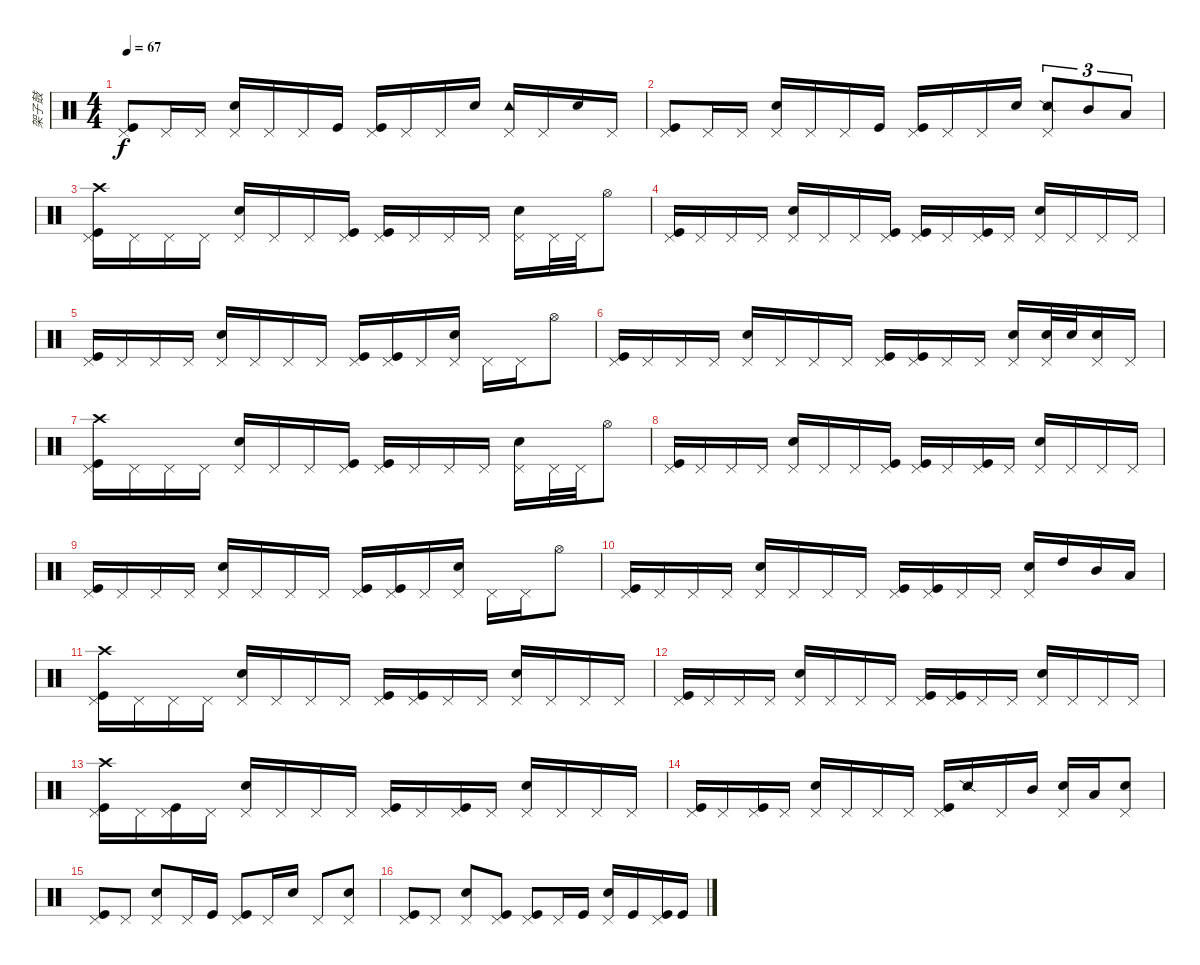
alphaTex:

\track ("架子鼓" "架子鼓") {instrument percussion}
\staff {score}
\articulation defaults
\ts (4 4)
\tempo 67
\clef neutral
\ks c
("Kick (hit)" "Pedal Hi-Hat (hit)").8{dy f} "Pedal Hi-Hat (hit)".16 "Pedal Hi-Hat (hit)".16 ("Snare (hit) 2" "Pedal Hi-Hat (hit)").16 "Pedal Hi-Hat (hit)".16 "Pedal Hi-Hat (hit)".16 "Kick (hit)".16 ("Kick (hit)" "Pedal Hi-Hat (hit)").16 "Pedal Hi-Hat (hit)".16 "Pedal Hi-Hat (hit)".16 "Snare (hit) 2".16 ("Tambourine (hit)" "Pedal Hi-Hat (hit)").16 "Pedal Hi-Hat (hit)".16 "Snare (hit) 2".16 "Pedal Hi-Hat (hit)".16 |
("Kick (hit)" "Pedal Hi-Hat (hit)").8 "Pedal Hi-Hat (hit)".16 "Pedal Hi-Hat (hit)".16 ("Snare (hit) 2" "Pedal Hi-Hat (hit)").16 "Pedal Hi-Hat (hit)".16 "Pedal Hi-Hat (hit)".16 "Kick (hit)".16 ("Kick (hit)" "Pedal Hi-Hat (hit)").16 "Pedal Hi-Hat (hit)".16 "Pedal Hi-Hat (hit)".16 "Snare (hit) 2".16 ("Snare (side stick) 2" "Pedal Hi-Hat (hit)").8{tu (3 2)} "Mid Tom (hit)".8{tu (3 2)} "Low Tom (hit)".8{tu (3 2)} |
("Kick (hit)" "Pedal Hi-Hat (hit)" "Crash high (hit)").16 "Pedal Hi-Hat (hit)".16 "Pedal Hi-Hat (hit)".16 "Pedal Hi-Hat (hit)".16 ("Snare (hit) 2" "Pedal Hi-Hat (hit)").16 "Pedal Hi-Hat (hit)".16 "Pedal Hi-Hat (hit)".16 ("Kick (hit)" "Pedal Hi-Hat (hit)").16 ("Kick (hit)" "Pedal Hi-Hat (hit)").16 "Pedal Hi-Hat (hit)".16 "Pedal Hi-Hat (hit)".16 "Pedal Hi-Hat (hit)".16 ("Snare (hit) 2" "Pedal Hi-Hat (hit)").16 "Pedal Hi-Hat (hit)".32 "Pedal Hi-Hat (hit)".32 "Hi-Hat (open)".8 |
("Kick (hit)" "Pedal Hi-Hat (hit)").16 "Pedal Hi-Hat (hit)".16 "Pedal Hi-Hat (hit)".16 "Pedal Hi-Hat (hit)".16 ("Snare (hit) 2" "Pedal Hi-Hat (hit)").16 "Pedal Hi-Hat (hit)".16 "Pedal Hi-Hat (hit)".16 ("Kick (hit)" "Pedal Hi-Hat (hit)").16 ("Kick (hit)" "Pedal Hi-Hat (hit)").16 "Pedal Hi-Hat (hit)".16 ("Kick (hit)" "Pedal Hi-Hat (hit)").16 "Pedal Hi-Hat (hit)".16 ("Snare (hit) 2" "Pedal Hi-Hat (hit)").16 "Pedal Hi-Hat (hit)".16 "Pedal Hi-Hat (hit)".16 "Pedal Hi-Hat (hit)".16 |
("Kick (hit)" "Pedal Hi-Hat (hit)").16 "Pedal Hi-Hat (hit)".16 "Pedal Hi-Hat (hit)".16 "Pedal Hi-Hat (hit)".16 ("Snare (hit) 2" "Pedal Hi-Hat (hit)").16 "Pedal Hi-Hat (hit)".16 "Pedal Hi-Hat (hit)".16 "Pedal Hi-Hat (hit)".16 ("Kick (hit)" "Pedal Hi-Hat (hit)").16 ("Kick (hit)" "Pedal Hi-Hat (hit)").16 "Pedal Hi-Hat (hit)".16 ("Snare (hit) 2" "Pedal Hi-Hat (hit)").16 "Pedal Hi-Hat (hit)".16 "Pedal Hi-Hat (hit)".16 "Hi-Hat (open)".8 |
("Kick (hit)" "Pedal Hi-Hat (hit)").16 "Pedal Hi-Hat (hit)".16 "Pedal Hi-Hat (hit)".16 "Pedal Hi-Hat (hit)".16 ("Snare (hit) 2" "Pedal Hi-Hat (hit)").16 "Pedal Hi-Hat (hit)".16 "Pedal Hi-Hat (hit)".16 "Pedal Hi-Hat (hit)".16 ("Kick (hit)" "Pedal Hi-Hat (hit)").16 ("Kick (hit)" "Pedal Hi-Hat (hit)").16 "Pedal Hi-Hat (hit)".16 "Pedal Hi-Hat (hit)".16 ("Snare (hit) 2" "Pedal Hi-Hat (hit)").16 ("Snare (hit) 2" "Pedal Hi-Hat (hit)").32 "Snare (hit) 2".32 ("Snare (hit) 2" "Pedal Hi-Hat (hit)").16 "Pedal Hi-Hat (hit)".16 |
("Kick (hit)" "Pedal Hi-Hat (hit)" "Crash high (hit)").16 "Pedal Hi-Hat (hit)".16 "Pedal Hi-Hat (hit)".16 "Pedal Hi-Hat (hit)".16 ("Snare (hit) 2" "Pedal Hi-Hat (hit)").16 "Pedal Hi-Hat (hit)".16 "Pedal Hi-Hat (hit)".16 ("Kick (hit)" "Pedal Hi-Hat (hit)").16 ("Kick (hit)" "Pedal Hi-Hat (hit)").16 "Pedal Hi-Hat (hit)".16 "Pedal Hi-Hat (hit)".16 "Pedal Hi-Hat (hit)".16 ("Snare (hit) 2" "Pedal Hi-Hat (hit)").16 "Pedal Hi-Hat (hit)".32 "Pedal Hi-Hat (hit)".32 "Hi-Hat (open)".8 |
("Kick (hit)" "Pedal Hi-Hat (hit)").16 "Pedal Hi-Hat (hit)".16 "Pedal Hi-Hat (hit)".16 "Pedal Hi-Hat (hit)".16 ("Snare (hit) 2" "Pedal Hi-Hat (hit)").16 "Pedal Hi-Hat (hit)".16 "Pedal Hi-Hat (hit)".16 ("Kick (hit)" "Pedal Hi-Hat (hit)").16 ("Kick (hit)" "Pedal Hi-Hat (hit)").16 "Pedal Hi-Hat (hit)".16 ("Kick (hit)" "Pedal Hi-Hat (hit)").16 "Pedal Hi-Hat (hit)".16 ("Snare (hit) 2" "Pedal Hi-Hat (hit)").16 "Pedal Hi-Hat (hit)".16 "Pedal Hi-Hat (hit)".16 "Pedal Hi-Hat (hit)".16 |
("Kick (hit)" "Pedal Hi-Hat (hit)").16 "Pedal Hi-Hat (hit)".16 "Pedal Hi-Hat (hit)".16 "Pedal Hi-Hat (hit)".16 ("Snare (hit) 2" "Pedal Hi-Hat (hit)").16 "Pedal Hi-Hat (hit)".16 "Pedal Hi-Hat (hit)".16 "Pedal Hi-Hat (hit)".16 ("Kick (hit)" "Pedal Hi-Hat (hit)").16 ("Kick (hit)" "Pedal Hi-Hat (hit)").16 "Pedal Hi-Hat (hit)".16 ("Snare (hit) 2" "Pedal Hi-Hat (hit)").16 "Pedal Hi-Hat (hit)".16 "Pedal Hi-Hat (hit)".16 "Hi-Hat (open)".8 |
("Kick (hit)" "Pedal Hi-Hat (hit)").16 "Pedal Hi-Hat (hit)".16 "Pedal Hi-Hat (hit)".16 "Pedal Hi-Hat (hit)".16 ("Snare (hit) 2" "Pedal Hi-Hat (hit)").16 "Pedal Hi-Hat (hit)".16 "Pedal Hi-Hat (hit)".16 "Pedal Hi-Hat (hit)".16 ("Kick (hit)" "Pedal Hi-Hat (hit)").16 ("Kick (hit)" "Pedal Hi-Hat (hit)").16 "Pedal Hi-Hat (hit)".16 "Pedal Hi-Hat (hit)".16 ("Snare (hit) 2" "Pedal Hi-Hat (hit)").16 "High Tom (hit)".16 "Mid Tom (hit)".16 "Low Tom (hit)".16 |
("Kick (hit)" "Pedal Hi-Hat (hit)" "Crash high (hit)").16 "Pedal Hi-Hat (hit)".16 "Pedal Hi-Hat (hit)".16 "Pedal Hi-Hat (hit)".16 ("Snare (hit) 2" "Pedal Hi-Hat (hit)").16 "Pedal Hi-Hat (hit)".16 "Pedal Hi-Hat (hit)".16 "Pedal Hi-Hat (hit)".16 ("Kick (hit)" "Pedal Hi-Hat (hit)").16 ("Kick (hit)" "Pedal Hi-Hat (hit)").16 "Pedal Hi-Hat (hit)".16 "Pedal Hi-Hat (hit)".16 ("Snare (hit) 2" "Pedal Hi-Hat (hit)").16 "Pedal Hi-Hat (hit)".16 "Pedal Hi-Hat (hit)".16 "Pedal Hi-Hat (hit)".16 |
("Kick (hit)" "Pedal Hi-Hat (hit)").16 "Pedal Hi-Hat (hit)".16 "Pedal Hi-Hat (hit)".16 "Pedal Hi-Hat (hit)".16 ("Snare (hit) 2" "Pedal Hi-Hat (hit)").16 "Pedal Hi-Hat (hit)".16 "Pedal Hi-Hat (hit)".16 "Pedal Hi-Hat (hit)".16 ("Kick (hit)" "Pedal Hi-Hat (hit)").16 ("Kick (hit)" "Pedal Hi-Hat (hit)").16 "Pedal Hi-Hat (hit)".16 "Pedal Hi-Hat (hit)".16 ("Snare (hit) 2" "Pedal Hi-Hat (hit)").16 "Pedal Hi-Hat (hit)".16 "Pedal Hi-Hat (hit)".16 "Pedal Hi-Hat (hit)".16 |
("Kick (hit)" "Pedal Hi-Hat (hit)" "Crash high (hit)").16 "Pedal Hi-Hat (hit)".16 ("Kick (hit)" "Pedal Hi-Hat (hit)").16 "Pedal Hi-Hat (hit)".16 ("Snare (hit) 2" "Pedal Hi-Hat (hit)").16 "Pedal Hi-Hat (hit)".16 "Pedal Hi-Hat (hit)".16 "Pedal Hi-Hat (hit)".16 ("Kick (hit)" "Pedal Hi-Hat (hit)").16 "Pedal Hi-Hat (hit)".16 ("Kick (hit)" "Pedal Hi-Hat (hit)").16 "Pedal Hi-Hat (hit)".16 ("Snare (hit) 2" "Pedal Hi-Hat (hit)").16 "Pedal Hi-Hat (hit)".16 "Pedal Hi-Hat (hit)".16 "Pedal Hi-Hat (hit)".16 |
("Kick (hit)" "Pedal Hi-Hat (hit)").16 "Pedal Hi-Hat (hit)".16 ("Kick (hit)" "Pedal Hi-Hat (hit)").16 "Pedal Hi-Hat (hit)".16 ("Snare (hit) 2" "Pedal Hi-Hat (hit)").16 "Pedal Hi-Hat (hit)".16 "Pedal Hi-Hat (hit)".16 "Pedal Hi-Hat (hit)".16 ("Kick (hit)" "Pedal Hi-Hat (hit)").16 "Snare (side stick) 2".16 "Pedal Hi-Hat (hit)".16 "Mid Tom (hit)".16 ("Snare (hit) 2" "Pedal Hi-Hat (hit)").16 "Low Tom (hit)".16 ("Snare (hit) 2" "Pedal Hi-Hat (hit)").8 |
("Kick (hit)" "Pedal Hi-Hat (hit)").8 "Pedal Hi-Hat (hit)".8 ("Snare (hit) 2" "Pedal Hi-Hat (hit)").8 "Pedal Hi-Hat (hit)".16 "Kick (hit)".16 ("Kick (hit)" "Pedal Hi-Hat (hit)").8 "Pedal Hi-Hat (hit)".16 "Snare (hit) 2".16 "Pedal Hi-Hat (hit)".8 ("Snare (hit) 2" "Pedal Hi-Hat (hit)").8 |
("Kick (hit)" "Pedal Hi-Hat (hit)").8 "Pedal Hi-Hat (hit)".8 ("Snare (hit) 2" "Pedal Hi-Hat (hit)").8 ("Kick (hit)" "Pedal Hi-Hat (hit)").8 ("Kick (hit)" "Pedal Hi-Hat (hit)").8 "Pedal Hi-Hat (hit)".16 "Kick (hit)".16 ("Snare (hit) 2" "Pedal Hi-Hat (hit)").16 "Kick (hit)".16 ("Kick (hit)" "Pedal Hi-Hat (hit)").16 "Kick (hit)".16
